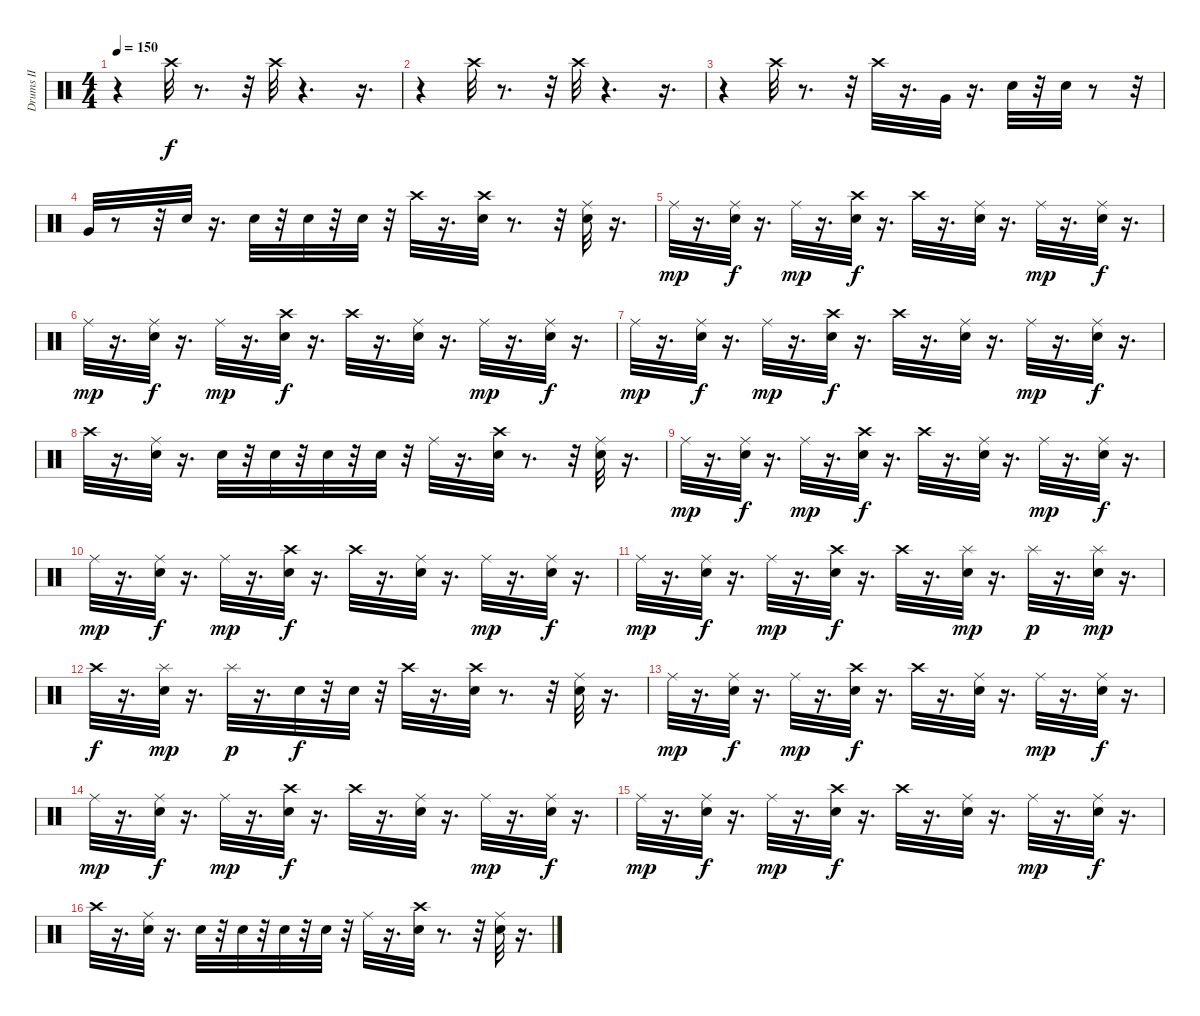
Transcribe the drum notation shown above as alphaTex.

\track ("Drums II" "Drums II") {instrument percussion}
\staff {score}
\articulation defaults
\ts (4 4)
\tempo 150
\clef neutral
\ks c
r.4{dy f} "Crash high (hit)".32 r.8{d} r.32 "Crash high (hit)".32 r.4{d} r.16{d} |
r.4 "Crash high (hit)".32 r.8{d} r.32 "Crash high (hit)".32 r.4{d} r.16{d} |
r.4 "Crash high (hit)".32 r.8{d} r.32 "Crash high (hit)".32 r.16{d} "Very Low Tom (hit)".32 r.16{d} "Snare (hit) 2".32 r.32 "Snare (hit) 2".32 r.8 r.32 |
"Very Low Tom (hit)".32 r.8 r.32 "Snare (hit) 2".32 r.16{d} "Snare (hit) 2".32 r.32 "Snare (hit) 2".32 r.32 "Snare (hit) 2".32 r.32 "Crash high (hit)".32 r.16{d} ("Crash high (hit)" "Snare (hit) 2").32 r.8{d} r.32 ("Ride (middle)" "Snare (hit) 2").32 r.16{d} |
"Ride (middle)".32{dy mp} r.16{d} ("Snare (hit) 2" "Ride (middle)").32{dy f} r.16{d} "Ride (middle)".32{dy mp} r.16{d} ("Snare (hit) 2" "Crash high (hit)").32{dy f} r.16{d} "Crash high (hit)".32 r.16{d} ("Snare (hit) 2" "Ride (middle)").32 r.16{d} "Ride (middle)".32{dy mp} r.16{d} ("Snare (hit) 2" "Ride (middle)").32{dy f} r.16{d} |
"Ride (middle)".32{dy mp} r.16{d} ("Snare (hit) 2" "Ride (middle)").32{dy f} r.16{d} "Ride (middle)".32{dy mp} r.16{d} ("Snare (hit) 2" "Crash high (hit)").32{dy f} r.16{d} "Crash high (hit)".32 r.16{d} ("Snare (hit) 2" "Ride (middle)").32 r.16{d} "Ride (middle)".32{dy mp} r.16{d} ("Snare (hit) 2" "Ride (middle)").32{dy f} r.16{d} |
"Ride (middle)".32{dy mp} r.16{d} ("Snare (hit) 2" "Ride (middle)").32{dy f} r.16{d} "Ride (middle)".32{dy mp} r.16{d} ("Snare (hit) 2" "Crash high (hit)").32{dy f} r.16{d} "Crash high (hit)".32 r.16{d} ("Snare (hit) 2" "Ride (middle)").32 r.16{d} "Ride (middle)".32{dy mp} r.16{d} ("Snare (hit) 2" "Ride (middle)").32{dy f} r.16{d} |
"Crash high (hit)".32 r.16{d} ("Snare (hit) 2" "Ride (middle)").32 r.16{d} "Snare (hit) 2".32 r.32 "Snare (hit) 2".32 r.32 "Snare (hit) 2".32 r.32 "Snare (hit) 2".32 r.32 "Ride (middle)".32 r.16{d} ("Crash high (hit)" "Snare (hit) 2").32 r.8{d} r.32 ("Ride (middle)" "Snare (hit) 2").32 r.16{d} |
"Ride (middle)".32{dy mp} r.16{d} ("Snare (hit) 2" "Ride (middle)").32{dy f} r.16{d} "Ride (middle)".32{dy mp} r.16{d} ("Snare (hit) 2" "Crash high (hit)").32{dy f} r.16{d} "Crash high (hit)".32 r.16{d} ("Snare (hit) 2" "Ride (middle)").32 r.16{d} "Ride (middle)".32{dy mp} r.16{d} ("Snare (hit) 2" "Ride (middle)").32{dy f} r.16{d} |
"Ride (middle)".32{dy mp} r.16{d} ("Snare (hit) 2" "Ride (middle)").32{dy f} r.16{d} "Ride (middle)".32{dy mp} r.16{d} ("Snare (hit) 2" "Crash high (hit)").32{dy f} r.16{d} "Crash high (hit)".32 r.16{d} ("Snare (hit) 2" "Ride (middle)").32 r.16{d} "Ride (middle)".32{dy mp} r.16{d} ("Snare (hit) 2" "Ride (middle)").32{dy f} r.16{d} |
"Ride (middle)".32{dy mp} r.16{d} ("Snare (hit) 2" "Ride (middle)").32{dy f} r.16{d} "Ride (middle)".32{dy mp} r.16{d} ("Snare (hit) 2" "Crash high (hit)").32{dy f} r.16{d} "Crash high (hit)".32 r.16{d} ("Snare (hit) 2" "Splash (hit)").32{dy mp} r.16{d} "Splash (hit)".32{dy p} r.16{d} ("Snare (hit) 2" "Splash (hit)").32{dy mp} r.16{d} |
"Crash high (hit)".32{dy f} r.16{d} ("Snare (hit) 2" "Splash (hit)").32{dy mp} r.16{d} "Splash (hit)".32{dy p} r.16{d} "Snare (hit) 2".32{dy f} r.32 "Snare (hit) 2".32 r.32 "Crash high (hit)".32 r.16{d} ("Crash high (hit)" "Snare (hit) 2").32 r.8{d} r.32 ("Ride (middle)" "Snare (hit) 2").32 r.16{d} |
"Ride (middle)".32{dy mp} r.16{d} ("Snare (hit) 2" "Ride (middle)").32{dy f} r.16{d} "Ride (middle)".32{dy mp} r.16{d} ("Snare (hit) 2" "Crash high (hit)").32{dy f} r.16{d} "Crash high (hit)".32 r.16{d} ("Snare (hit) 2" "Ride (middle)").32 r.16{d} "Ride (middle)".32{dy mp} r.16{d} ("Snare (hit) 2" "Ride (middle)").32{dy f} r.16{d} |
"Ride (middle)".32{dy mp} r.16{d} ("Snare (hit) 2" "Ride (middle)").32{dy f} r.16{d} "Ride (middle)".32{dy mp} r.16{d} ("Snare (hit) 2" "Crash high (hit)").32{dy f} r.16{d} "Crash high (hit)".32 r.16{d} ("Snare (hit) 2" "Ride (middle)").32 r.16{d} "Ride (middle)".32{dy mp} r.16{d} ("Snare (hit) 2" "Ride (middle)").32{dy f} r.16{d} |
"Ride (middle)".32{dy mp} r.16{d} ("Snare (hit) 2" "Ride (middle)").32{dy f} r.16{d} "Ride (middle)".32{dy mp} r.16{d} ("Snare (hit) 2" "Crash high (hit)").32{dy f} r.16{d} "Crash high (hit)".32 r.16{d} ("Snare (hit) 2" "Ride (middle)").32 r.16{d} "Ride (middle)".32{dy mp} r.16{d} ("Snare (hit) 2" "Ride (middle)").32{dy f} r.16{d} |
"Crash high (hit)".32 r.16{d} ("Snare (hit) 2" "Ride (middle)").32 r.16{d} "Snare (hit) 2".32 r.32 "Snare (hit) 2".32 r.32 "Snare (hit) 2".32 r.32 "Snare (hit) 2".32 r.32 "Ride (middle)".32 r.16{d} ("Crash high (hit)" "Snare (hit) 2").32 r.8{d} r.32 ("Ride (middle)" "Snare (hit) 2").32 r.16{d}
